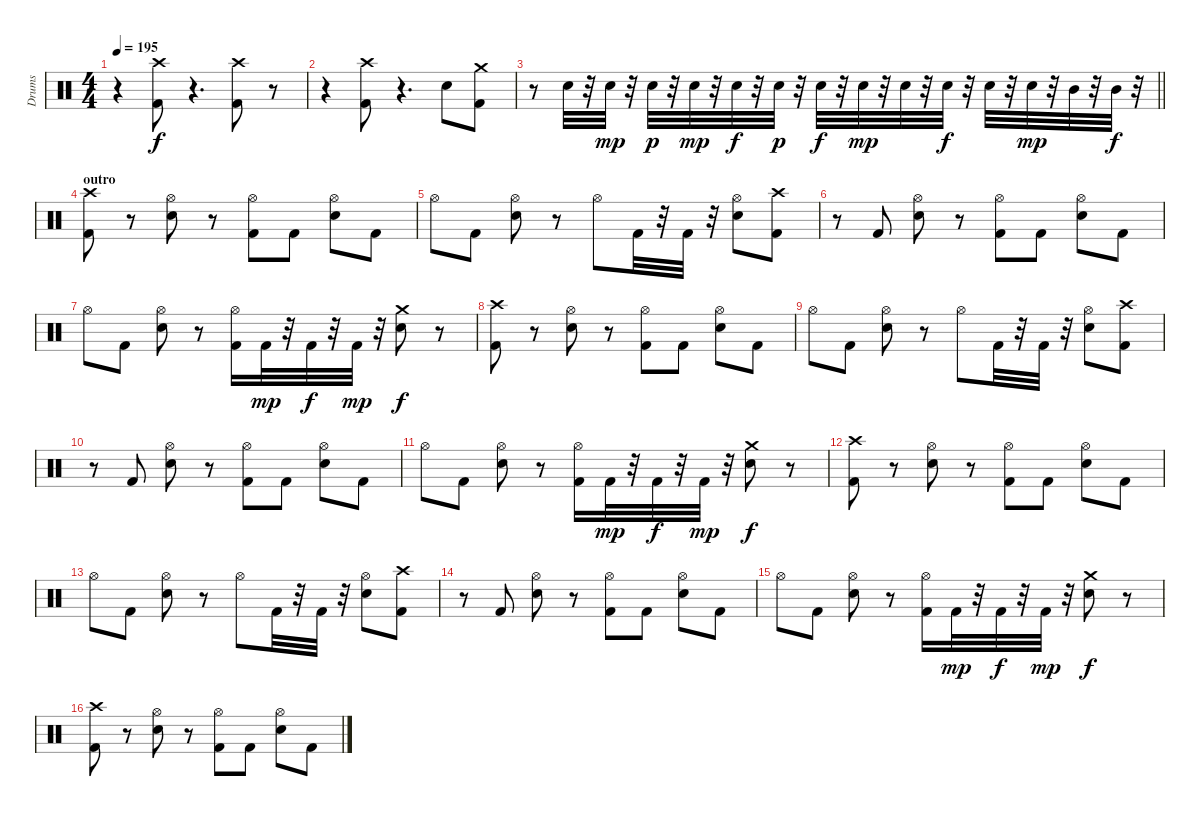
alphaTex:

\track ("Drums" "Drums") {instrument percussion}
\staff {score}
\articulation defaults
\ts (4 4)
\tempo 195
\clef neutral
\ks c
r.4{dy f} ("Kick (hit) 2" "Crash high (hit)").8 r.4{d} ("Kick (hit) 2" "Crash high (hit)").8 r.8 |
r.4 ("Kick (hit) 2" "Crash high (hit)").8 r.4{d} "Electric Snare (hit)".8 ("Kick (hit) 2" "Crash medium (hit)").8 |
\barLineRight lightlight
r.8 "Electric Snare (hit)".32 r.32 "Electric Snare (hit)".32{dy mp} r.32 "Electric Snare (hit)".32{dy p} r.32 "Electric Snare (hit)".32{dy mp} r.32 "Electric Snare (hit)".32{dy f} r.32 "Electric Snare (hit)".32{dy p} r.32 "Electric Snare (hit)".32{dy f} r.32 "Electric Snare (hit)".32{dy mp} r.32 "Electric Snare (hit)".32 r.32 "Electric Snare (hit)".32{dy f} r.32 "Electric Snare (hit)".32 r.32 "Electric Snare (hit)".32{dy mp} r.32 "Mid Tom (hit)".32 r.32 "Mid Tom (hit)".32{dy f} r.32 |
\section ("" "outro")
("Kick (hit) 2" "Crash high (hit)").8 r.8 ("Electric Snare (hit)" "Hi-Hat (open)").8 r.8 ("Hi-Hat (open)" "Kick (hit) 2").8 "Kick (hit) 2".8 ("Electric Snare (hit)" "Hi-Hat (open)").8 "Kick (hit) 2".8 |
"Hi-Hat (open)".8 "Kick (hit) 2".8 ("Electric Snare (hit)" "Hi-Hat (open)").8 r.8 "Hi-Hat (open)".8 "Kick (hit) 2".32 r.32 "Kick (hit) 2".32 r.32 ("Electric Snare (hit)" "Hi-Hat (open)").8 ("Kick (hit) 2" "Crash high (hit)").8 |
r.8 "Kick (hit) 2".8 ("Electric Snare (hit)" "Hi-Hat (open)").8 r.8 ("Hi-Hat (open)" "Kick (hit) 2").8 "Kick (hit) 2".8 ("Electric Snare (hit)" "Hi-Hat (open)").8 "Kick (hit) 2".8 |
"Hi-Hat (open)".8 "Kick (hit) 2".8 ("Electric Snare (hit)" "Hi-Hat (open)").8 r.8 ("Kick (hit) 2" "Hi-Hat (open)").16 "Kick (hit) 2".32{dy mp} r.32 "Kick (hit) 2".32{dy f} r.32 "Kick (hit) 2".32{dy mp} r.32 ("Electric Snare (hit)" "Crash medium (hit)").8{dy f} r.8 |
("Kick (hit) 2" "Crash high (hit)").8 r.8 ("Electric Snare (hit)" "Hi-Hat (open)").8 r.8 ("Hi-Hat (open)" "Kick (hit) 2").8 "Kick (hit) 2".8 ("Electric Snare (hit)" "Hi-Hat (open)").8 "Kick (hit) 2".8 |
"Hi-Hat (open)".8 "Kick (hit) 2".8 ("Electric Snare (hit)" "Hi-Hat (open)").8 r.8 "Hi-Hat (open)".8 "Kick (hit) 2".32 r.32 "Kick (hit) 2".32 r.32 ("Electric Snare (hit)" "Hi-Hat (open)").8 ("Kick (hit) 2" "Crash high (hit)").8 |
r.8 "Kick (hit) 2".8 ("Electric Snare (hit)" "Hi-Hat (open)").8 r.8 ("Hi-Hat (open)" "Kick (hit) 2").8 "Kick (hit) 2".8 ("Electric Snare (hit)" "Hi-Hat (open)").8 "Kick (hit) 2".8 |
"Hi-Hat (open)".8 "Kick (hit) 2".8 ("Electric Snare (hit)" "Hi-Hat (open)").8 r.8 ("Kick (hit) 2" "Hi-Hat (open)").16 "Kick (hit) 2".32{dy mp} r.32 "Kick (hit) 2".32{dy f} r.32 "Kick (hit) 2".32{dy mp} r.32 ("Electric Snare (hit)" "Crash medium (hit)").8{dy f} r.8 |
("Kick (hit) 2" "Crash high (hit)").8 r.8 ("Electric Snare (hit)" "Hi-Hat (open)").8 r.8 ("Hi-Hat (open)" "Kick (hit) 2").8 "Kick (hit) 2".8 ("Electric Snare (hit)" "Hi-Hat (open)").8 "Kick (hit) 2".8 |
"Hi-Hat (open)".8 "Kick (hit) 2".8 ("Electric Snare (hit)" "Hi-Hat (open)").8 r.8 "Hi-Hat (open)".8 "Kick (hit) 2".32 r.32 "Kick (hit) 2".32 r.32 ("Electric Snare (hit)" "Hi-Hat (open)").8 ("Kick (hit) 2" "Crash high (hit)").8 |
r.8 "Kick (hit) 2".8 ("Electric Snare (hit)" "Hi-Hat (open)").8 r.8 ("Hi-Hat (open)" "Kick (hit) 2").8 "Kick (hit) 2".8 ("Electric Snare (hit)" "Hi-Hat (open)").8 "Kick (hit) 2".8 |
"Hi-Hat (open)".8 "Kick (hit) 2".8 ("Electric Snare (hit)" "Hi-Hat (open)").8 r.8 ("Kick (hit) 2" "Hi-Hat (open)").16 "Kick (hit) 2".32{dy mp} r.32 "Kick (hit) 2".32{dy f} r.32 "Kick (hit) 2".32{dy mp} r.32 ("Electric Snare (hit)" "Crash medium (hit)").8{dy f} r.8 |
("Kick (hit) 2" "Crash high (hit)").8 r.8 ("Electric Snare (hit)" "Hi-Hat (open)").8 r.8 ("Hi-Hat (open)" "Kick (hit) 2").8 "Kick (hit) 2".8 ("Electric Snare (hit)" "Hi-Hat (open)").8 "Kick (hit) 2".8
